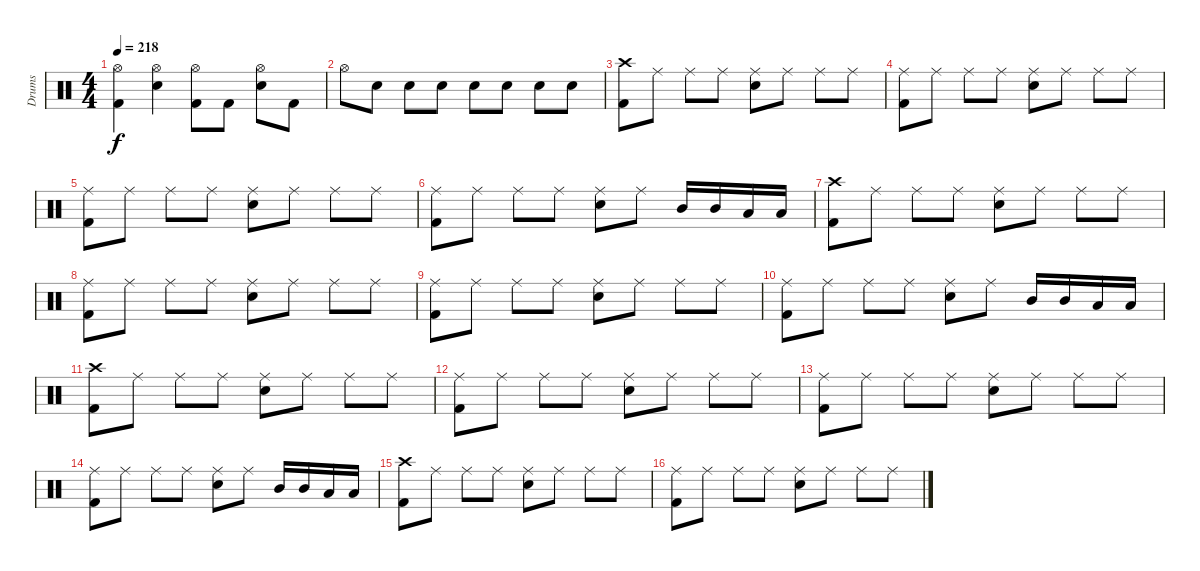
\track ("Drums" "Drums") {instrument percussion}
\staff {score}
\articulation defaults
\ts (4 4)
\tempo 218
\clef neutral
\ks c
("Hi-Hat (open)" "Kick (hit) 2").4{dy f} ("Hi-Hat (open)" "Snare (hit) 2").4 ("Hi-Hat (open)" "Kick (hit) 2").8 "Kick (hit) 2".8 ("Hi-Hat (open)" "Snare (hit) 2").8 "Kick (hit) 2".8 |
"Hi-Hat (open)".8 "Snare (hit) 2".8 "Snare (hit) 2".8 "Snare (hit) 2".8 "Snare (hit) 2".8 "Snare (hit) 2".8 "Snare (hit) 2".8 "Snare (hit) 2".8 |
("Crash high (hit)" "Kick (hit) 2").8 "Ride (middle)".8 "Ride (middle)".8 "Ride (middle)".8 ("Ride (middle)" "Snare (hit) 2").8 "Ride (middle)".8 "Ride (middle)".8 "Ride (middle)".8 |
("Ride (middle)" "Kick (hit) 2").8 "Ride (middle)".8 "Ride (middle)".8 "Ride (middle)".8 ("Ride (middle)" "Snare (hit) 2").8 "Ride (middle)".8 "Ride (middle)".8 "Ride (middle)".8 |
("Ride (middle)" "Kick (hit) 2").8 "Ride (middle)".8 "Ride (middle)".8 "Ride (middle)".8 ("Ride (middle)" "Snare (hit) 2").8 "Ride (middle)".8 "Ride (middle)".8 "Ride (middle)".8 |
("Ride (middle)" "Kick (hit) 2").8 "Ride (middle)".8 "Ride (middle)".8 "Ride (middle)".8 ("Ride (middle)" "Snare (hit) 2").8 "Ride (middle)".8 "Mid Tom (hit)".16 "Mid Tom (hit)".16 "Low Tom (hit)".16 "Low Tom (hit)".16 |
("Crash high (hit)" "Kick (hit) 2").8 "Ride (middle)".8 "Ride (middle)".8 "Ride (middle)".8 ("Ride (middle)" "Snare (hit) 2").8 "Ride (middle)".8 "Ride (middle)".8 "Ride (middle)".8 |
("Ride (middle)" "Kick (hit) 2").8 "Ride (middle)".8 "Ride (middle)".8 "Ride (middle)".8 ("Ride (middle)" "Snare (hit) 2").8 "Ride (middle)".8 "Ride (middle)".8 "Ride (middle)".8 |
("Ride (middle)" "Kick (hit) 2").8 "Ride (middle)".8 "Ride (middle)".8 "Ride (middle)".8 ("Ride (middle)" "Snare (hit) 2").8 "Ride (middle)".8 "Ride (middle)".8 "Ride (middle)".8 |
("Ride (middle)" "Kick (hit) 2").8 "Ride (middle)".8 "Ride (middle)".8 "Ride (middle)".8 ("Ride (middle)" "Snare (hit) 2").8 "Ride (middle)".8 "Mid Tom (hit)".16 "Mid Tom (hit)".16 "Low Tom (hit)".16 "Low Tom (hit)".16 |
("Crash high (hit)" "Kick (hit) 2").8 "Ride (middle)".8 "Ride (middle)".8 "Ride (middle)".8 ("Ride (middle)" "Snare (hit) 2").8 "Ride (middle)".8 "Ride (middle)".8 "Ride (middle)".8 |
("Ride (middle)" "Kick (hit) 2").8 "Ride (middle)".8 "Ride (middle)".8 "Ride (middle)".8 ("Ride (middle)" "Snare (hit) 2").8 "Ride (middle)".8 "Ride (middle)".8 "Ride (middle)".8 |
("Ride (middle)" "Kick (hit) 2").8 "Ride (middle)".8 "Ride (middle)".8 "Ride (middle)".8 ("Ride (middle)" "Snare (hit) 2").8 "Ride (middle)".8 "Ride (middle)".8 "Ride (middle)".8 |
("Ride (middle)" "Kick (hit) 2").8 "Ride (middle)".8 "Ride (middle)".8 "Ride (middle)".8 ("Ride (middle)" "Snare (hit) 2").8 "Ride (middle)".8 "Mid Tom (hit)".16 "Mid Tom (hit)".16 "Low Tom (hit)".16 "Low Tom (hit)".16 |
("Crash high (hit)" "Kick (hit) 2").8 "Ride (middle)".8 "Ride (middle)".8 "Ride (middle)".8 ("Ride (middle)" "Snare (hit) 2").8 "Ride (middle)".8 "Ride (middle)".8 "Ride (middle)".8 |
("Ride (middle)" "Kick (hit) 2").8 "Ride (middle)".8 "Ride (middle)".8 "Ride (middle)".8 ("Ride (middle)" "Snare (hit) 2").8 "Ride (middle)".8 "Ride (middle)".8 "Ride (middle)".8
